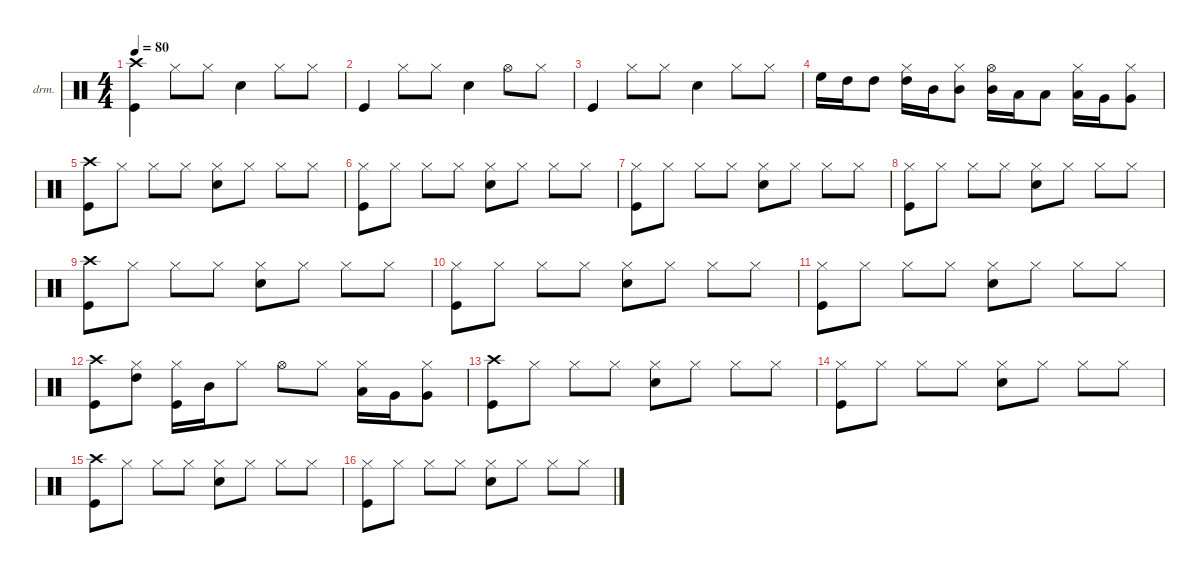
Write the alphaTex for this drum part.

\defaultSystemsLayout 4
\hideDynamics
\bracketExtendMode groupsimilarinstruments
\firstSystemTrackNameOrientation horizontal
\otherSystemsTrackNameOrientation horizontal
\chordDiagramsInScore
\track ("drum" "drm.") {instrument percussion}
\staff {score}
\articulation defaults
\ts (4 4)
\tempo 80
\clef neutral
\ks c
("Crash high (hit)" "Kick (hit)").4{dy f} "Hi-Hat (closed)".8 "Hi-Hat (closed)".8 "Snare (hit) 2".4 "Hi-Hat (closed)".8 "Hi-Hat (closed)".8 |
"Kick (hit)".4 "Hi-Hat (closed)".8 "Hi-Hat (closed)".8 "Snare (hit) 2".4 "Hi-Hat (open)".8 "Hi-Hat (closed)".8 |
"Kick (hit)".4 "Hi-Hat (closed)".8 "Hi-Hat (closed)".8 "Snare (hit) 2".4 "Hi-Hat (closed)".8 "Hi-Hat (closed)".8 |
"High Floor Tom (hit)".16 "High Tom (hit)".16 "High Tom (hit)".8 ("Hi-Hat (closed)" "High Tom (hit)").16 "Mid Tom (hit)".16 ("Hi-Hat (closed)" "Mid Tom (hit)").8 ("Hi-Hat (open)" "Mid Tom (hit)").16 "Low Tom (hit)".16 "Low Tom (hit)".8 ("Hi-Hat (closed)" "Low Tom (hit)").16 "Very Low Tom (hit)".16 ("Hi-Hat (closed)" "Very Low Tom (hit)").8 |
("Crash high (hit)" "Kick (hit)").8 "Hi-Hat (closed)".8 "Hi-Hat (closed)".8 "Hi-Hat (closed)".8 ("Hi-Hat (closed)" "Snare (hit) 2").8 "Hi-Hat (closed)".8 "Hi-Hat (closed)".8 "Hi-Hat (closed)".8 |
("Hi-Hat (closed)" "Kick (hit)").8 "Hi-Hat (closed)".8 "Hi-Hat (closed)".8 "Hi-Hat (closed)".8 ("Hi-Hat (closed)" "Snare (hit) 2").8 "Hi-Hat (closed)".8 "Hi-Hat (closed)".8 "Hi-Hat (closed)".8 |
("Hi-Hat (closed)" "Kick (hit)").8 "Hi-Hat (closed)".8 "Hi-Hat (closed)".8 "Hi-Hat (closed)".8 ("Hi-Hat (closed)" "Snare (hit) 2").8 "Hi-Hat (closed)".8 "Hi-Hat (closed)".8 "Hi-Hat (closed)".8 |
("Hi-Hat (closed)" "Kick (hit)").8 "Hi-Hat (closed)".8 "Hi-Hat (closed)".8 "Hi-Hat (closed)".8 ("Hi-Hat (closed)" "Snare (hit) 2").8 "Hi-Hat (closed)".8 "Hi-Hat (closed)".8 "Hi-Hat (closed)".8 |
("Crash high (hit)" "Kick (hit)").8 "Hi-Hat (closed)".8 "Hi-Hat (closed)".8 "Hi-Hat (closed)".8 ("Hi-Hat (closed)" "Snare (hit) 2").8 "Hi-Hat (closed)".8 "Hi-Hat (closed)".8 "Hi-Hat (closed)".8 |
("Hi-Hat (closed)" "Kick (hit)").8 "Hi-Hat (closed)".8 "Hi-Hat (closed)".8 "Hi-Hat (closed)".8 ("Hi-Hat (closed)" "Snare (hit) 2").8 "Hi-Hat (closed)".8 "Hi-Hat (closed)".8 "Hi-Hat (closed)".8 |
("Hi-Hat (closed)" "Kick (hit)").8 "Hi-Hat (closed)".8 "Hi-Hat (closed)".8 "Hi-Hat (closed)".8 ("Hi-Hat (closed)" "Snare (hit) 2").8 "Hi-Hat (closed)".8 "Hi-Hat (closed)".8 "Hi-Hat (closed)".8 |
("Crash high (hit)" "Kick (hit)").8 ("Hi-Hat (closed)" "High Tom (hit)").8 ("Hi-Hat (closed)" "Kick (hit)").16 "Mid Tom (hit)".16 "Hi-Hat (closed)".8 "Hi-Hat (open)".8 "Hi-Hat (closed)".8 ("Hi-Hat (closed)" "Low Tom (hit)").16 "Very Low Tom (hit)".16 ("Hi-Hat (closed)" "Very Low Tom (hit)").8 |
("Crash high (hit)" "Kick (hit)").8 "Hi-Hat (closed)".8 "Hi-Hat (closed)".8 "Hi-Hat (closed)".8 ("Hi-Hat (closed)" "Snare (hit) 2").8 "Hi-Hat (closed)".8 "Hi-Hat (closed)".8 "Hi-Hat (closed)".8 |
("Hi-Hat (closed)" "Kick (hit)").8 "Hi-Hat (closed)".8 "Hi-Hat (closed)".8 "Hi-Hat (closed)".8 ("Hi-Hat (closed)" "Snare (hit) 2").8 "Hi-Hat (closed)".8 "Hi-Hat (closed)".8 "Hi-Hat (closed)".8 |
("Crash high (hit)" "Kick (hit)").8 "Hi-Hat (closed)".8 "Hi-Hat (closed)".8 "Hi-Hat (closed)".8 ("Hi-Hat (closed)" "Snare (hit) 2").8 "Hi-Hat (closed)".8 "Hi-Hat (closed)".8 "Hi-Hat (closed)".8 |
("Hi-Hat (closed)" "Kick (hit)").8 "Hi-Hat (closed)".8 "Hi-Hat (closed)".8 "Hi-Hat (closed)".8 ("Hi-Hat (closed)" "Snare (hit) 2").8 "Hi-Hat (closed)".8 "Hi-Hat (closed)".8 "Hi-Hat (closed)".8
